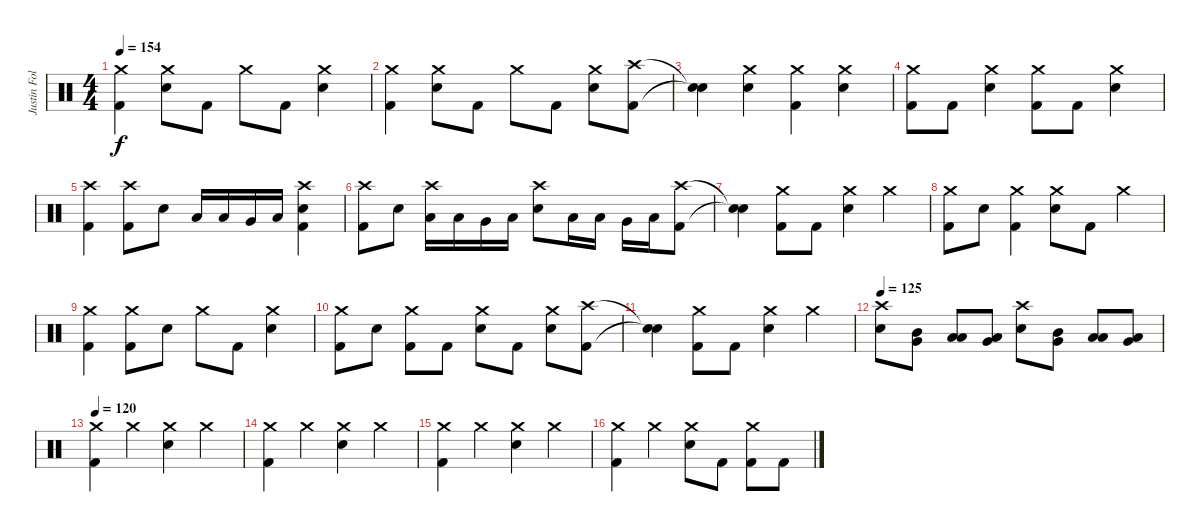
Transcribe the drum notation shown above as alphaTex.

\track ("Justin Foley" "Justin Fol") {instrument percussion}
\staff {score}
\articulation defaults
\ts (4 4)
\tempo 154
\clef neutral
\ks c
("Crash medium (hit)" "Kick (hit) 2").4{dy f} ("Crash medium (hit)" "Electric Snare (hit)").8 "Kick (hit) 2".8 "Crash medium (hit)".8 "Kick (hit) 2".8 ("Crash medium (hit)" "Electric Snare (hit)").4 |
("Crash medium (hit)" "Kick (hit) 2").4 ("Crash medium (hit)" "Electric Snare (hit)").8 "Kick (hit) 2".8 "Crash medium (hit)".8 "Kick (hit) 2".8 ("Crash medium (hit)" "Electric Snare (hit)").8 ("Crash high (hit)" "Kick (hit) 2").8 |
("Snare (hit)"{t} "Snare (hit)"{t}).4 ("Crash medium (hit)" "Electric Snare (hit)").4 ("Crash medium (hit)" "Kick (hit) 2").4 ("Crash medium (hit)" "Electric Snare (hit)").4 |
("Crash medium (hit)" "Kick (hit) 2").8 "Kick (hit) 2".8 ("Crash medium (hit)" "Electric Snare (hit)").4 ("Crash medium (hit)" "Kick (hit) 2").8 "Kick (hit) 2".8 ("Crash medium (hit)" "Electric Snare (hit)").4 |
("Crash high (hit)" "Kick (hit) 2").4 ("Crash high (hit)" "Kick (hit) 2").8 "Electric Snare (hit)".8 "Low Tom (hit)".16 "Low Tom (hit)".16 "Very Low Tom (hit)".16 "Low Floor Tom (hit)".16 ("Crash high (hit)" "Electric Snare (hit)" "Kick (hit) 2").4 |
("Crash high (hit)" "Kick (hit) 2").8 "Electric Snare (hit)".8 ("Crash high (hit)" "Low Tom (hit)").16 "Low Tom (hit)".16 "Very Low Tom (hit)".16 "Low Floor Tom (hit)".16 ("Crash high (hit)" "Electric Snare (hit)").8 "Low Tom (hit)".16 "Low Tom (hit)".16 "Very Low Tom (hit)".16 "Low Floor Tom (hit)".16 ("Crash high (hit)" "Kick (hit) 2").8 |
("Snare (hit)"{t} "Snare (hit)"{t}).4 ("Crash medium (hit)" "Kick (hit) 2").8 "Kick (hit) 2".8 ("Crash medium (hit)" "Electric Snare (hit)").4 "Crash medium (hit)".4 |
("Crash medium (hit)" "Kick (hit) 2").8 "Electric Snare (hit)".8 ("Crash medium (hit)" "Kick (hit) 2").4 ("Crash medium (hit)" "Electric Snare (hit)").8 "Kick (hit) 2".8 "Crash medium (hit)".4 |
("Crash medium (hit)" "Kick (hit) 2").4 ("Crash medium (hit)" "Kick (hit) 2").8 "Electric Snare (hit)".8 "Crash medium (hit)".8 "Kick (hit) 2".8 ("Crash medium (hit)" "Electric Snare (hit)").4 |
("Crash medium (hit)" "Kick (hit) 2").8 "Electric Snare (hit)".8 ("Crash medium (hit)" "Kick (hit) 2").8 "Kick (hit) 2".8 ("Crash medium (hit)" "Electric Snare (hit)").8 "Kick (hit) 2".8 ("Crash medium (hit)" "Electric Snare (hit)").8 ("Crash high (hit)" "Kick (hit) 2").8 |
("Snare (hit)"{t} "Snare (hit)"{t}).4 ("Crash medium (hit)" "Kick (hit) 2").8 "Kick (hit) 2".8 ("Crash medium (hit)" "Electric Snare (hit)").4 "Crash medium (hit)".4 |
\tempo 125
("Crash high (hit)" "Electric Snare (hit)").8 ("Mid Tom (hit)" "Very Low Tom (hit)").8 ("Low Tom (hit)" "Low Floor Tom (hit)").8 ("Very Low Tom (hit)" "Low Floor Tom (hit)").8 ("Crash high (hit)" "Electric Snare (hit)").8 ("Mid Tom (hit)" "Very Low Tom (hit)").8 ("Low Tom (hit)" "Low Floor Tom (hit)").8 ("Very Low Tom (hit)" "Low Floor Tom (hit)").8 |
\tempo 120
("Crash medium (hit)" "Kick (hit) 2").4 "Crash medium (hit)".4 ("Crash medium (hit)" "Electric Snare (hit)").4 "Crash medium (hit)".4 |
("Crash medium (hit)" "Kick (hit) 2").4 "Crash medium (hit)".4 ("Crash medium (hit)" "Electric Snare (hit)").4 "Crash medium (hit)".4 |
("Crash medium (hit)" "Kick (hit) 2").4 "Crash medium (hit)".4 ("Crash medium (hit)" "Electric Snare (hit)").4 "Crash medium (hit)".4 |
("Crash medium (hit)" "Kick (hit) 2").4 "Crash medium (hit)".4 ("Crash medium (hit)" "Electric Snare (hit)").8 "Kick (hit) 2".8 ("Crash medium (hit)" "Kick (hit) 2").8 "Kick (hit) 2".8
